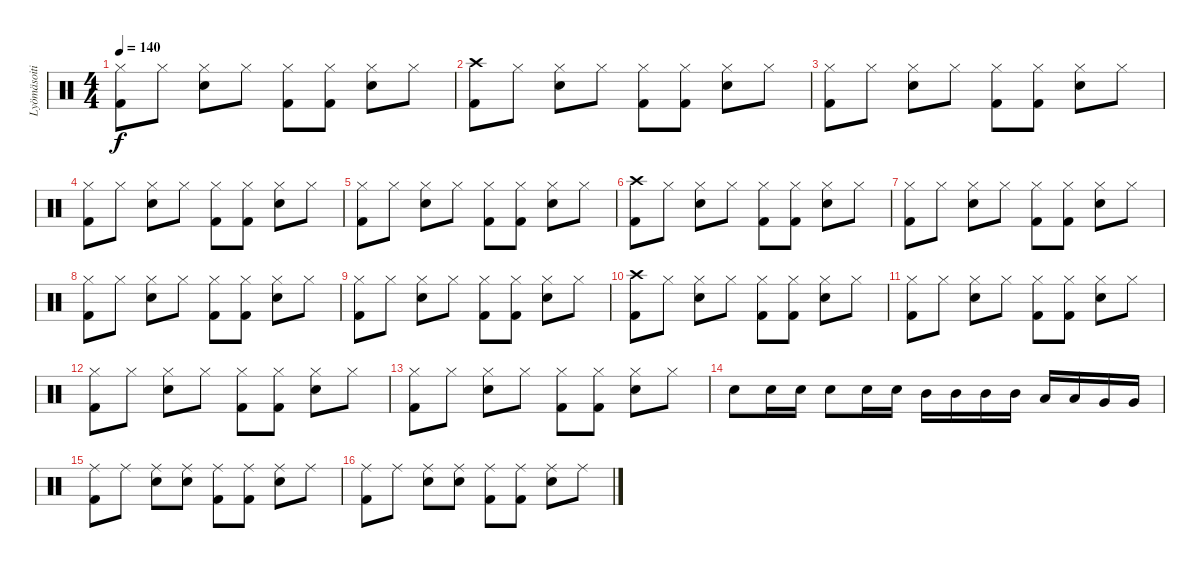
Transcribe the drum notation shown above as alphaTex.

\track ("Lyömäsoitin" "Lyömäsoiti") {instrument percussion}
\staff {score}
\articulation defaults
\ts (4 4)
\tempo 140
\clef neutral
\ks c
("Hi-Hat (closed)" "Kick (hit) 2").8{dy f} "Hi-Hat (closed)".8 ("Hi-Hat (closed)" "Electric Snare (hit)").8 "Hi-Hat (closed)".8 ("Hi-Hat (closed)" "Kick (hit) 2").8 ("Hi-Hat (closed)" "Kick (hit) 2").8 ("Hi-Hat (closed)" "Electric Snare (hit)").8 "Hi-Hat (closed)".8 |
("Crash high (hit)" "Kick (hit) 2").8 "Hi-Hat (closed)".8 ("Hi-Hat (closed)" "Electric Snare (hit)").8 "Hi-Hat (closed)".8 ("Hi-Hat (closed)" "Kick (hit) 2").8 ("Hi-Hat (closed)" "Kick (hit) 2").8 ("Hi-Hat (closed)" "Electric Snare (hit)").8 "Hi-Hat (closed)".8 |
("Hi-Hat (closed)" "Kick (hit) 2").8 "Hi-Hat (closed)".8 ("Hi-Hat (closed)" "Electric Snare (hit)").8 "Hi-Hat (closed)".8 ("Hi-Hat (closed)" "Kick (hit) 2").8 ("Hi-Hat (closed)" "Kick (hit) 2").8 ("Hi-Hat (closed)" "Electric Snare (hit)").8 "Hi-Hat (closed)".8 |
("Hi-Hat (closed)" "Kick (hit) 2").8 "Hi-Hat (closed)".8 ("Hi-Hat (closed)" "Electric Snare (hit)").8 "Hi-Hat (closed)".8 ("Hi-Hat (closed)" "Kick (hit) 2").8 ("Hi-Hat (closed)" "Kick (hit) 2").8 ("Hi-Hat (closed)" "Electric Snare (hit)").8 "Hi-Hat (closed)".8 |
("Hi-Hat (closed)" "Kick (hit) 2").8 "Hi-Hat (closed)".8 ("Hi-Hat (closed)" "Electric Snare (hit)").8 "Hi-Hat (closed)".8 ("Hi-Hat (closed)" "Kick (hit) 2").8 ("Hi-Hat (closed)" "Kick (hit) 2").8 ("Hi-Hat (closed)" "Electric Snare (hit)").8 "Hi-Hat (closed)".8 |
("Crash high (hit)" "Kick (hit) 2").8 "Hi-Hat (closed)".8 ("Hi-Hat (closed)" "Electric Snare (hit)").8 "Hi-Hat (closed)".8 ("Hi-Hat (closed)" "Kick (hit) 2").8 ("Hi-Hat (closed)" "Kick (hit) 2").8 ("Hi-Hat (closed)" "Electric Snare (hit)").8 "Hi-Hat (closed)".8 |
("Hi-Hat (closed)" "Kick (hit) 2").8 "Hi-Hat (closed)".8 ("Hi-Hat (closed)" "Electric Snare (hit)").8 "Hi-Hat (closed)".8 ("Hi-Hat (closed)" "Kick (hit) 2").8 ("Hi-Hat (closed)" "Kick (hit) 2").8 ("Hi-Hat (closed)" "Electric Snare (hit)").8 "Hi-Hat (closed)".8 |
("Hi-Hat (closed)" "Kick (hit) 2").8 "Hi-Hat (closed)".8 ("Hi-Hat (closed)" "Electric Snare (hit)").8 "Hi-Hat (closed)".8 ("Hi-Hat (closed)" "Kick (hit) 2").8 ("Hi-Hat (closed)" "Kick (hit) 2").8 ("Hi-Hat (closed)" "Electric Snare (hit)").8 "Hi-Hat (closed)".8 |
("Hi-Hat (closed)" "Kick (hit) 2").8 "Hi-Hat (closed)".8 ("Hi-Hat (closed)" "Electric Snare (hit)").8 "Hi-Hat (closed)".8 ("Hi-Hat (closed)" "Kick (hit) 2").8 ("Hi-Hat (closed)" "Kick (hit) 2").8 ("Hi-Hat (closed)" "Electric Snare (hit)").8 "Hi-Hat (closed)".8 |
("Crash high (hit)" "Kick (hit) 2").8 "Hi-Hat (closed)".8 ("Hi-Hat (closed)" "Electric Snare (hit)").8 "Hi-Hat (closed)".8 ("Hi-Hat (closed)" "Kick (hit) 2").8 ("Hi-Hat (closed)" "Kick (hit) 2").8 ("Hi-Hat (closed)" "Electric Snare (hit)").8 "Hi-Hat (closed)".8 |
("Hi-Hat (closed)" "Kick (hit) 2").8 "Hi-Hat (closed)".8 ("Hi-Hat (closed)" "Electric Snare (hit)").8 "Hi-Hat (closed)".8 ("Hi-Hat (closed)" "Kick (hit) 2").8 ("Hi-Hat (closed)" "Kick (hit) 2").8 ("Hi-Hat (closed)" "Electric Snare (hit)").8 "Hi-Hat (closed)".8 |
("Hi-Hat (closed)" "Kick (hit) 2").8 "Hi-Hat (closed)".8 ("Hi-Hat (closed)" "Electric Snare (hit)").8 "Hi-Hat (closed)".8 ("Hi-Hat (closed)" "Kick (hit) 2").8 ("Hi-Hat (closed)" "Kick (hit) 2").8 ("Hi-Hat (closed)" "Electric Snare (hit)").8 "Hi-Hat (closed)".8 |
("Hi-Hat (closed)" "Kick (hit) 2").8 "Hi-Hat (closed)".8 ("Hi-Hat (closed)" "Electric Snare (hit)").8 "Hi-Hat (closed)".8 ("Hi-Hat (closed)" "Kick (hit) 2").8 ("Hi-Hat (closed)" "Kick (hit) 2").8 ("Hi-Hat (closed)" "Electric Snare (hit)").8 "Hi-Hat (closed)".8 |
"Electric Snare (hit)".8 "Electric Snare (hit)".16 "Electric Snare (hit)".16 "Electric Snare (hit)".8 "Electric Snare (hit)".16 "Electric Snare (hit)".16 "Mid Tom (hit)".16 "Mid Tom (hit)".16 "Mid Tom (hit)".16 "Mid Tom (hit)".16 "Low Tom (hit)".16 "Low Tom (hit)".16 "Very Low Tom (hit)".16 "Very Low Tom (hit)".16 |
("Ride (middle)" "Kick (hit) 2").8 "Ride (middle)".8 ("Ride (middle)" "Electric Snare (hit)").8 ("Ride (middle)" "Electric Snare (hit)").8 ("Ride (middle)" "Kick (hit) 2").8 ("Ride (middle)" "Kick (hit) 2").8 ("Ride (middle)" "Electric Snare (hit)").8 "Ride (middle)".8 |
("Ride (middle)" "Kick (hit) 2").8 "Ride (middle)".8 ("Ride (middle)" "Electric Snare (hit)").8 ("Ride (middle)" "Electric Snare (hit)").8 ("Ride (middle)" "Kick (hit) 2").8 ("Ride (middle)" "Kick (hit) 2").8 ("Ride (middle)" "Electric Snare (hit)").8 "Ride (middle)".8
